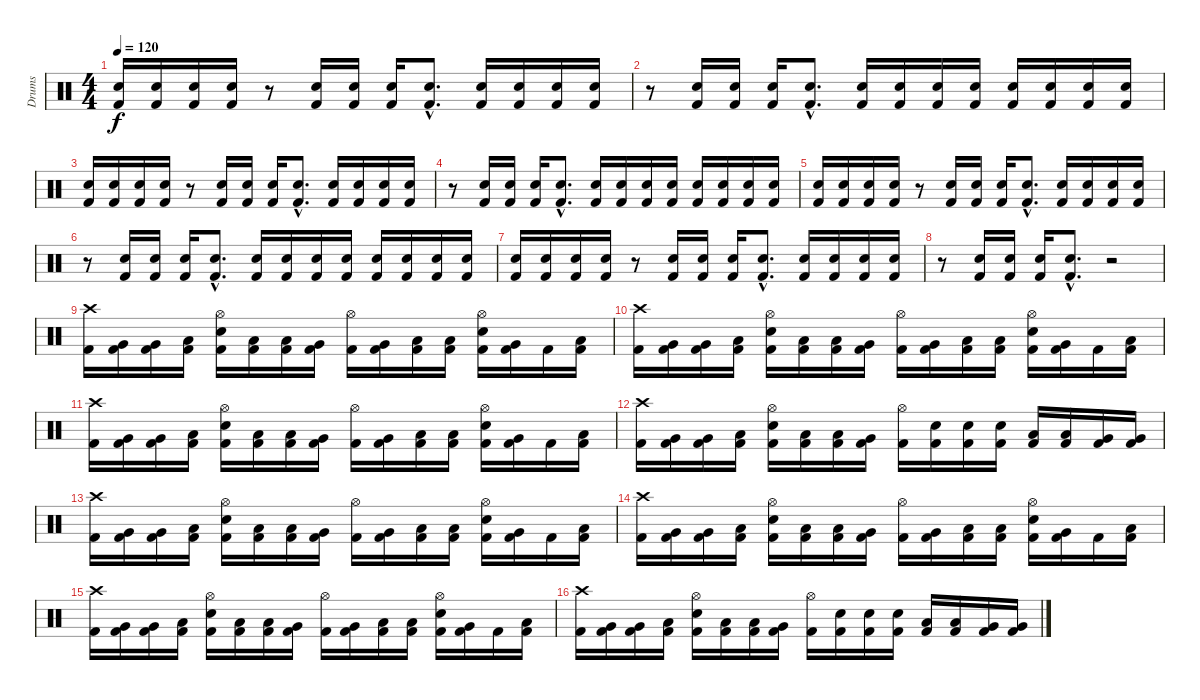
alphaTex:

\track ("Drums" "Drums") {instrument percussion}
\staff {score}
\articulation defaults
\ts (4 4)
\tempo 120
\clef neutral
\ks c
("Kick (hit) 2" "Snare (hit) 2").16{dy f} ("Kick (hit) 2" "Snare (hit) 2").16 ("Kick (hit) 2" "Snare (hit) 2").16 ("Kick (hit) 2" "Snare (hit) 2").16 r.8 ("Kick (hit) 2" "Snare (hit) 2").16 ("Kick (hit) 2" "Snare (hit) 2").16 ("Kick (hit) 2" "Snare (hit) 2").16 ("Kick (hit) 2"{hac} "Snare (hit) 2"{hac}).8{d} ("Kick (hit) 2" "Snare (hit) 2").16 ("Kick (hit) 2" "Snare (hit) 2").16 ("Kick (hit) 2" "Snare (hit) 2").16 ("Kick (hit) 2" "Snare (hit) 2").16 |
r.8 ("Kick (hit) 2" "Snare (hit) 2").16 ("Kick (hit) 2" "Snare (hit) 2").16 ("Kick (hit) 2" "Snare (hit) 2").16 ("Kick (hit) 2"{hac} "Snare (hit) 2"{hac}).8{d} ("Kick (hit) 2" "Snare (hit) 2").16 ("Kick (hit) 2" "Snare (hit) 2").16 ("Kick (hit) 2" "Snare (hit) 2").16 ("Kick (hit) 2" "Snare (hit) 2").16 ("Kick (hit) 2" "Snare (hit) 2").16 ("Kick (hit) 2" "Snare (hit) 2").16 ("Kick (hit) 2" "Snare (hit) 2").16 ("Kick (hit) 2" "Snare (hit) 2").16 |
("Kick (hit) 2" "Snare (hit) 2").16 ("Kick (hit) 2" "Snare (hit) 2").16 ("Kick (hit) 2" "Snare (hit) 2").16 ("Kick (hit) 2" "Snare (hit) 2").16 r.8 ("Kick (hit) 2" "Snare (hit) 2").16 ("Kick (hit) 2" "Snare (hit) 2").16 ("Kick (hit) 2" "Snare (hit) 2").16 ("Kick (hit) 2"{hac} "Snare (hit) 2"{hac}).8{d} ("Kick (hit) 2" "Snare (hit) 2").16 ("Kick (hit) 2" "Snare (hit) 2").16 ("Kick (hit) 2" "Snare (hit) 2").16 ("Kick (hit) 2" "Snare (hit) 2").16 |
r.8 ("Kick (hit) 2" "Snare (hit) 2").16 ("Kick (hit) 2" "Snare (hit) 2").16 ("Kick (hit) 2" "Snare (hit) 2").16 ("Kick (hit) 2"{hac} "Snare (hit) 2"{hac}).8{d} ("Kick (hit) 2" "Snare (hit) 2").16 ("Kick (hit) 2" "Snare (hit) 2").16 ("Kick (hit) 2" "Snare (hit) 2").16 ("Kick (hit) 2" "Snare (hit) 2").16 ("Kick (hit) 2" "Snare (hit) 2").16 ("Kick (hit) 2" "Snare (hit) 2").16 ("Kick (hit) 2" "Snare (hit) 2").16 ("Kick (hit) 2" "Snare (hit) 2").16 |
("Kick (hit) 2" "Snare (hit) 2").16 ("Kick (hit) 2" "Snare (hit) 2").16 ("Kick (hit) 2" "Snare (hit) 2").16 ("Kick (hit) 2" "Snare (hit) 2").16 r.8 ("Kick (hit) 2" "Snare (hit) 2").16 ("Kick (hit) 2" "Snare (hit) 2").16 ("Kick (hit) 2" "Snare (hit) 2").16 ("Kick (hit) 2"{hac} "Snare (hit) 2"{hac}).8{d} ("Kick (hit) 2" "Snare (hit) 2").16 ("Kick (hit) 2" "Snare (hit) 2").16 ("Kick (hit) 2" "Snare (hit) 2").16 ("Kick (hit) 2" "Snare (hit) 2").16 |
r.8 ("Kick (hit) 2" "Snare (hit) 2").16 ("Kick (hit) 2" "Snare (hit) 2").16 ("Kick (hit) 2" "Snare (hit) 2").16 ("Kick (hit) 2"{hac} "Snare (hit) 2"{hac}).8{d} ("Kick (hit) 2" "Snare (hit) 2").16 ("Kick (hit) 2" "Snare (hit) 2").16 ("Kick (hit) 2" "Snare (hit) 2").16 ("Kick (hit) 2" "Snare (hit) 2").16 ("Kick (hit) 2" "Snare (hit) 2").16 ("Kick (hit) 2" "Snare (hit) 2").16 ("Kick (hit) 2" "Snare (hit) 2").16 ("Kick (hit) 2" "Snare (hit) 2").16 |
("Kick (hit) 2" "Snare (hit) 2").16 ("Kick (hit) 2" "Snare (hit) 2").16 ("Kick (hit) 2" "Snare (hit) 2").16 ("Kick (hit) 2" "Snare (hit) 2").16 r.8 ("Kick (hit) 2" "Snare (hit) 2").16 ("Kick (hit) 2" "Snare (hit) 2").16 ("Kick (hit) 2" "Snare (hit) 2").16 ("Kick (hit) 2"{hac} "Snare (hit) 2"{hac}).8{d} ("Kick (hit) 2" "Snare (hit) 2").16 ("Kick (hit) 2" "Snare (hit) 2").16 ("Kick (hit) 2" "Snare (hit) 2").16 ("Kick (hit) 2" "Snare (hit) 2").16 |
r.8 ("Kick (hit) 2" "Snare (hit) 2").16 ("Kick (hit) 2" "Snare (hit) 2").16 ("Kick (hit) 2" "Snare (hit) 2").16 ("Kick (hit) 2"{hac} "Snare (hit) 2"{hac}).8{d} r.2 |
("Crash high (hit)" "Kick (hit) 2").16 ("Very Low Tom (hit)" "Kick (hit) 2").16 ("Very Low Tom (hit)" "Kick (hit) 2").16 ("Low Floor Tom (hit)" "Kick (hit) 2").16 ("Hi-Hat (open)" "Snare (hit) 2" "Kick (hit) 2").16 ("Low Tom (hit)" "Kick (hit) 2").16 ("Low Tom (hit)" "Kick (hit) 2").16 ("Very Low Tom (hit)" "Kick (hit) 2").16 ("Hi-Hat (open)" "Kick (hit) 2").16 ("Very Low Tom (hit)" "Kick (hit) 2").16 ("Low Floor Tom (hit)" "Kick (hit) 2").16 ("Low Floor Tom (hit)" "Kick (hit) 2").16 ("Hi-Hat (open)" "Snare (hit) 2" "Kick (hit) 2").16 ("Very Low Tom (hit)" "Kick (hit) 2").16 "Kick (hit) 2".16 ("Low Floor Tom (hit)" "Kick (hit) 2").16 |
("Crash high (hit)" "Kick (hit) 2").16 ("Very Low Tom (hit)" "Kick (hit) 2").16 ("Very Low Tom (hit)" "Kick (hit) 2").16 ("Low Floor Tom (hit)" "Kick (hit) 2").16 ("Hi-Hat (open)" "Snare (hit) 2" "Kick (hit) 2").16 ("Low Tom (hit)" "Kick (hit) 2").16 ("Low Tom (hit)" "Kick (hit) 2").16 ("Very Low Tom (hit)" "Kick (hit) 2").16 ("Hi-Hat (open)" "Kick (hit) 2").16 ("Very Low Tom (hit)" "Kick (hit) 2").16 ("Low Floor Tom (hit)" "Kick (hit) 2").16 ("Low Floor Tom (hit)" "Kick (hit) 2").16 ("Hi-Hat (open)" "Snare (hit) 2" "Kick (hit) 2").16 ("Very Low Tom (hit)" "Kick (hit) 2").16 "Kick (hit) 2".16 ("Low Floor Tom (hit)" "Kick (hit) 2").16 |
("Crash high (hit)" "Kick (hit) 2").16 ("Very Low Tom (hit)" "Kick (hit) 2").16 ("Very Low Tom (hit)" "Kick (hit) 2").16 ("Low Floor Tom (hit)" "Kick (hit) 2").16 ("Hi-Hat (open)" "Snare (hit) 2" "Kick (hit) 2").16 ("Low Tom (hit)" "Kick (hit) 2").16 ("Low Tom (hit)" "Kick (hit) 2").16 ("Very Low Tom (hit)" "Kick (hit) 2").16 ("Hi-Hat (open)" "Kick (hit) 2").16 ("Very Low Tom (hit)" "Kick (hit) 2").16 ("Low Floor Tom (hit)" "Kick (hit) 2").16 ("Low Floor Tom (hit)" "Kick (hit) 2").16 ("Hi-Hat (open)" "Snare (hit) 2" "Kick (hit) 2").16 ("Very Low Tom (hit)" "Kick (hit) 2").16 "Kick (hit) 2".16 ("Low Floor Tom (hit)" "Kick (hit) 2").16 |
("Crash high (hit)" "Kick (hit) 2").16 ("Very Low Tom (hit)" "Kick (hit) 2").16 ("Very Low Tom (hit)" "Kick (hit) 2").16 ("Low Floor Tom (hit)" "Kick (hit) 2").16 ("Hi-Hat (open)" "Snare (hit) 2" "Kick (hit) 2").16 ("Low Tom (hit)" "Kick (hit) 2").16 ("Low Tom (hit)" "Kick (hit) 2").16 ("Very Low Tom (hit)" "Kick (hit) 2").16 ("Hi-Hat (open)" "Kick (hit) 2").16 ("Snare (hit) 2" "Kick (hit) 2").16 ("Snare (hit) 2" "Kick (hit) 2").16 ("Snare (hit) 2" "Kick (hit) 2").16 ("Low Tom (hit)" "Kick (hit) 2").16 ("Low Tom (hit)" "Kick (hit) 2").16 ("Very Low Tom (hit)" "Kick (hit) 2").16 ("Very Low Tom (hit)" "Kick (hit) 2").16 |
("Crash high (hit)" "Kick (hit) 2").16 ("Very Low Tom (hit)" "Kick (hit) 2").16 ("Very Low Tom (hit)" "Kick (hit) 2").16 ("Low Floor Tom (hit)" "Kick (hit) 2").16 ("Hi-Hat (open)" "Snare (hit) 2" "Kick (hit) 2").16 ("Low Tom (hit)" "Kick (hit) 2").16 ("Low Tom (hit)" "Kick (hit) 2").16 ("Very Low Tom (hit)" "Kick (hit) 2").16 ("Hi-Hat (open)" "Kick (hit) 2").16 ("Very Low Tom (hit)" "Kick (hit) 2").16 ("Low Floor Tom (hit)" "Kick (hit) 2").16 ("Low Floor Tom (hit)" "Kick (hit) 2").16 ("Hi-Hat (open)" "Snare (hit) 2" "Kick (hit) 2").16 ("Very Low Tom (hit)" "Kick (hit) 2").16 "Kick (hit) 2".16 ("Low Floor Tom (hit)" "Kick (hit) 2").16 |
("Crash high (hit)" "Kick (hit) 2").16 ("Very Low Tom (hit)" "Kick (hit) 2").16 ("Very Low Tom (hit)" "Kick (hit) 2").16 ("Low Floor Tom (hit)" "Kick (hit) 2").16 ("Hi-Hat (open)" "Snare (hit) 2" "Kick (hit) 2").16 ("Low Tom (hit)" "Kick (hit) 2").16 ("Low Tom (hit)" "Kick (hit) 2").16 ("Very Low Tom (hit)" "Kick (hit) 2").16 ("Hi-Hat (open)" "Kick (hit) 2").16 ("Very Low Tom (hit)" "Kick (hit) 2").16 ("Low Floor Tom (hit)" "Kick (hit) 2").16 ("Low Floor Tom (hit)" "Kick (hit) 2").16 ("Hi-Hat (open)" "Snare (hit) 2" "Kick (hit) 2").16 ("Very Low Tom (hit)" "Kick (hit) 2").16 "Kick (hit) 2".16 ("Low Floor Tom (hit)" "Kick (hit) 2").16 |
("Crash high (hit)" "Kick (hit) 2").16 ("Very Low Tom (hit)" "Kick (hit) 2").16 ("Very Low Tom (hit)" "Kick (hit) 2").16 ("Low Floor Tom (hit)" "Kick (hit) 2").16 ("Hi-Hat (open)" "Snare (hit) 2" "Kick (hit) 2").16 ("Low Tom (hit)" "Kick (hit) 2").16 ("Low Tom (hit)" "Kick (hit) 2").16 ("Very Low Tom (hit)" "Kick (hit) 2").16 ("Hi-Hat (open)" "Kick (hit) 2").16 ("Very Low Tom (hit)" "Kick (hit) 2").16 ("Low Floor Tom (hit)" "Kick (hit) 2").16 ("Low Floor Tom (hit)" "Kick (hit) 2").16 ("Hi-Hat (open)" "Snare (hit) 2" "Kick (hit) 2").16 ("Very Low Tom (hit)" "Kick (hit) 2").16 "Kick (hit) 2".16 ("Low Floor Tom (hit)" "Kick (hit) 2").16 |
("Crash high (hit)" "Kick (hit) 2").16 ("Very Low Tom (hit)" "Kick (hit) 2").16 ("Very Low Tom (hit)" "Kick (hit) 2").16 ("Low Floor Tom (hit)" "Kick (hit) 2").16 ("Hi-Hat (open)" "Snare (hit) 2" "Kick (hit) 2").16 ("Low Tom (hit)" "Kick (hit) 2").16 ("Low Tom (hit)" "Kick (hit) 2").16 ("Very Low Tom (hit)" "Kick (hit) 2").16 ("Hi-Hat (open)" "Kick (hit) 2").16 ("Snare (hit) 2" "Kick (hit) 2").16 ("Snare (hit) 2" "Kick (hit) 2").16 ("Snare (hit) 2" "Kick (hit) 2").16 ("Low Tom (hit)" "Kick (hit) 2").16 ("Low Tom (hit)" "Kick (hit) 2").16 ("Very Low Tom (hit)" "Kick (hit) 2").16 ("Very Low Tom (hit)" "Kick (hit) 2").16
